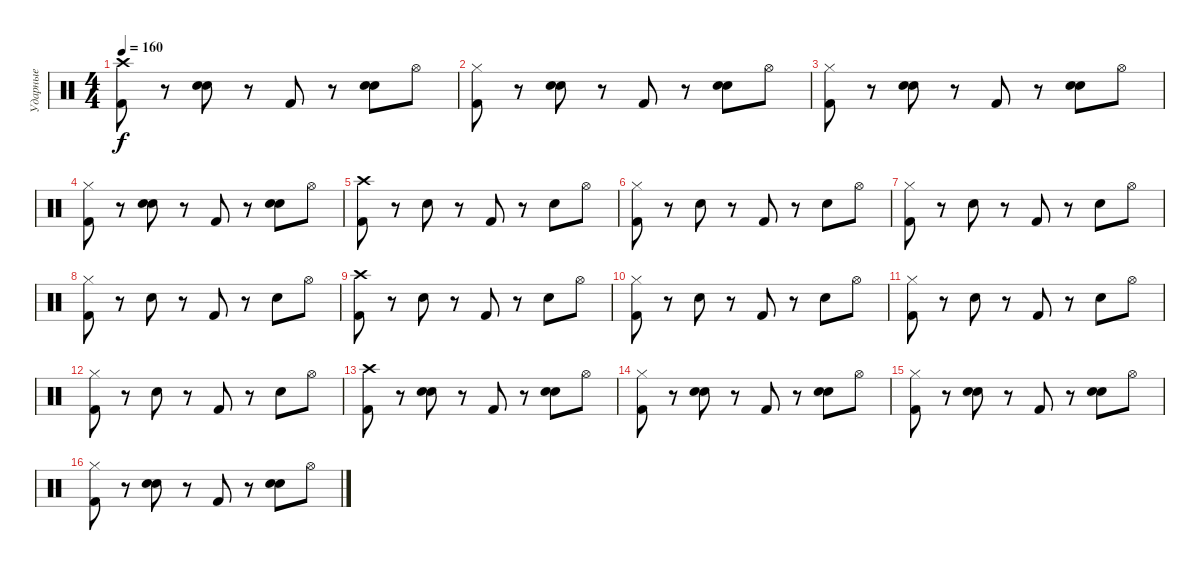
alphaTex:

\track ("Ударные" "Ударные") {instrument percussion}
\staff {score}
\articulation defaults
\ts (4 4)
\tempo 160
\clef neutral
\ks c
("Crash high (hit)" "Kick (hit) 2").8{dy f} r.8 ("Hand Clap (hit)" "Electric Snare (hit)").8 r.8 "Kick (hit) 2".8 r.8 ("Hand Clap (hit)" "Electric Snare (hit)").8 "Hi-Hat (open)".8 |
("Hi-Hat (closed)" "Kick (hit) 2").8 r.8 ("Hand Clap (hit)" "Electric Snare (hit)").8 r.8 "Kick (hit) 2".8 r.8 ("Hand Clap (hit)" "Electric Snare (hit)").8 "Hi-Hat (open)".8 |
("Hi-Hat (closed)" "Kick (hit) 2").8 r.8 ("Hand Clap (hit)" "Electric Snare (hit)").8 r.8 "Kick (hit) 2".8 r.8 ("Hand Clap (hit)" "Electric Snare (hit)").8 "Hi-Hat (open)".8 |
("Hi-Hat (closed)" "Kick (hit) 2").8 r.8 ("Hand Clap (hit)" "Electric Snare (hit)").8 r.8 "Kick (hit) 2".8 r.8 ("Hand Clap (hit)" "Electric Snare (hit)").8 "Hi-Hat (open)".8 |
("Crash high (hit)" "Kick (hit) 2").8 r.8 "Electric Snare (hit)".8 r.8 "Kick (hit) 2".8 r.8 "Electric Snare (hit)".8 "Hi-Hat (open)".8 |
("Hi-Hat (closed)" "Kick (hit) 2").8 r.8 "Electric Snare (hit)".8 r.8 "Kick (hit) 2".8 r.8 "Electric Snare (hit)".8 "Hi-Hat (open)".8 |
("Hi-Hat (closed)" "Kick (hit) 2").8 r.8 "Electric Snare (hit)".8 r.8 "Kick (hit) 2".8 r.8 "Electric Snare (hit)".8 "Hi-Hat (open)".8 |
("Hi-Hat (closed)" "Kick (hit) 2").8 r.8 "Electric Snare (hit)".8 r.8 "Kick (hit) 2".8 r.8 "Electric Snare (hit)".8 "Hi-Hat (open)".8 |
("Crash high (hit)" "Kick (hit) 2").8 r.8 "Electric Snare (hit)".8 r.8 "Kick (hit) 2".8 r.8 "Electric Snare (hit)".8 "Hi-Hat (open)".8 |
("Hi-Hat (closed)" "Kick (hit) 2").8 r.8 "Electric Snare (hit)".8 r.8 "Kick (hit) 2".8 r.8 "Electric Snare (hit)".8 "Hi-Hat (open)".8 |
("Hi-Hat (closed)" "Kick (hit) 2").8 r.8 "Electric Snare (hit)".8 r.8 "Kick (hit) 2".8 r.8 "Electric Snare (hit)".8 "Hi-Hat (open)".8 |
("Hi-Hat (closed)" "Kick (hit) 2").8 r.8 "Electric Snare (hit)".8 r.8 "Kick (hit) 2".8 r.8 "Electric Snare (hit)".8 "Hi-Hat (open)".8 |
("Crash high (hit)" "Kick (hit) 2").8 r.8 ("Hand Clap (hit)" "Electric Snare (hit)").8 r.8 "Kick (hit) 2".8 r.8 ("Hand Clap (hit)" "Electric Snare (hit)").8 "Hi-Hat (open)".8 |
("Hi-Hat (closed)" "Kick (hit) 2").8 r.8 ("Hand Clap (hit)" "Electric Snare (hit)").8 r.8 "Kick (hit) 2".8 r.8 ("Hand Clap (hit)" "Electric Snare (hit)").8 "Hi-Hat (open)".8 |
("Hi-Hat (closed)" "Kick (hit) 2").8 r.8 ("Hand Clap (hit)" "Electric Snare (hit)").8 r.8 "Kick (hit) 2".8 r.8 ("Hand Clap (hit)" "Electric Snare (hit)").8 "Hi-Hat (open)".8 |
("Hi-Hat (closed)" "Kick (hit) 2").8 r.8 ("Hand Clap (hit)" "Electric Snare (hit)").8 r.8 "Kick (hit) 2".8 r.8 ("Hand Clap (hit)" "Electric Snare (hit)").8 "Hi-Hat (open)".8
